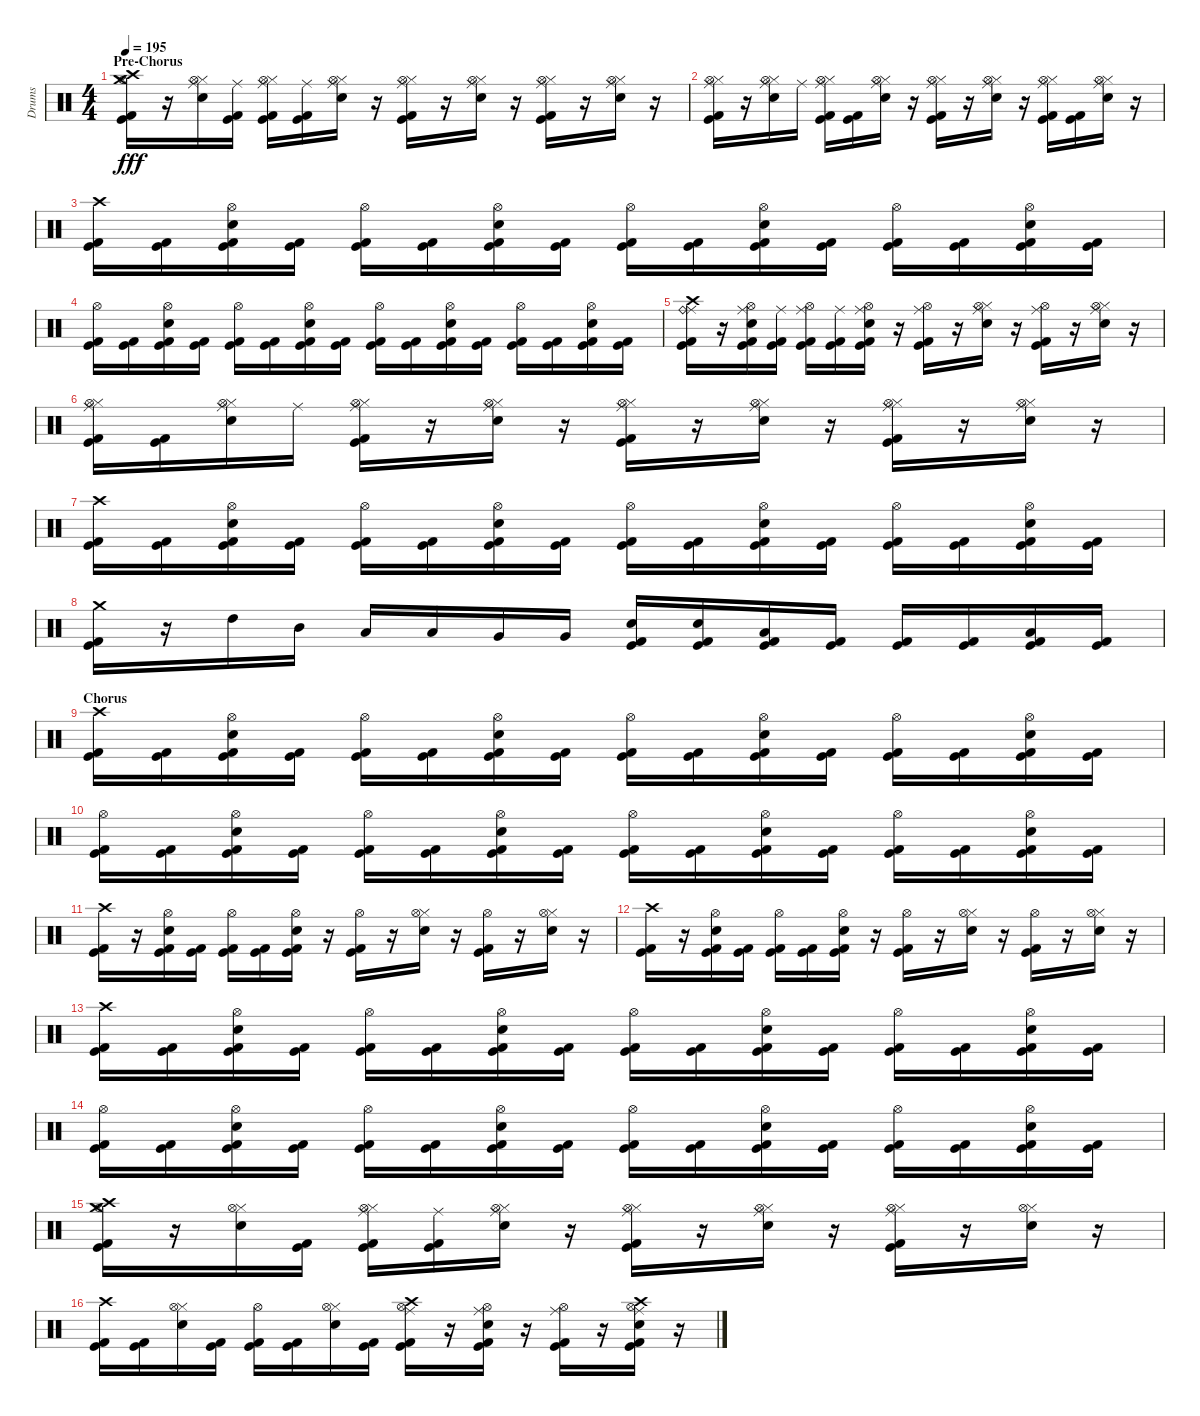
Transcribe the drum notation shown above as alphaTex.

\track ("Drums" "Drums") {instrument percussion}
\staff {score}
\articulation defaults
\ts (4 4)
\section ("" "Pre-Chorus")
\tempo 195
\clef neutral
\ks c
("Kick (hit) 2" "Kick (hit)" "Crash high (hit)" "Hi-Hat (open)" "Crash medium (hit)").16{dy fff} r.16 ("Snare (hit) 2" "Hi-Hat (closed)" "Ride (middle)" "Hi-Hat (open)").16 ("Kick (hit) 2" "Kick (hit)" "Ride (middle)").16 ("Kick (hit) 2" "Kick (hit)" "Hi-Hat (closed)" "Ride (middle)" "Hi-Hat (open)").16 ("Kick (hit) 2" "Kick (hit)" "Ride (middle)").16 ("Snare (hit) 2" "Hi-Hat (closed)" "Ride (middle)" "Hi-Hat (open)").16 r.16 ("Kick (hit) 2" "Kick (hit)" "Hi-Hat (closed)" "Ride (middle)" "Hi-Hat (open)").16 r.16 ("Snare (hit) 2" "Hi-Hat (closed)" "Ride (middle)" "Hi-Hat (open)").16 r.16 ("Kick (hit) 2" "Kick (hit)" "Hi-Hat (closed)" "Ride (middle)" "Hi-Hat (open)").16 r.16 ("Snare (hit) 2" "Hi-Hat (closed)" "Ride (middle)" "Hi-Hat (open)").16 r.16 |
("Kick (hit) 2" "Kick (hit)" "Hi-Hat (closed)" "Ride (middle)" "Hi-Hat (open)").16 r.16 ("Snare (hit) 2" "Hi-Hat (closed)" "Ride (middle)" "Hi-Hat (open)").16 "Ride (middle)".16 ("Kick (hit) 2" "Kick (hit)" "Hi-Hat (closed)" "Ride (middle)" "Hi-Hat (open)").16 ("Kick (hit) 2" "Kick (hit)").16 ("Snare (hit) 2" "Hi-Hat (closed)" "Ride (middle)" "Hi-Hat (open)").16 r.16 ("Kick (hit) 2" "Kick (hit)" "Hi-Hat (closed)" "Ride (middle)" "Hi-Hat (open)").16 r.16 ("Snare (hit) 2" "Hi-Hat (closed)" "Ride (middle)" "Hi-Hat (open)").16 r.16 ("Kick (hit) 2" "Kick (hit)" "Hi-Hat (closed)" "Ride (middle)" "Hi-Hat (open)").16 ("Kick (hit) 2" "Kick (hit)").16 ("Snare (hit) 2" "Hi-Hat (closed)" "Ride (middle)" "Hi-Hat (open)").16 r.16 |
("Kick (hit) 2" "Kick (hit)" "Crash high (hit)").16 ("Kick (hit) 2" "Kick (hit)").16 ("Kick (hit) 2" "Kick (hit)" "Snare (hit) 2" "Hi-Hat (open)").16 ("Kick (hit) 2" "Kick (hit)").16 ("Kick (hit) 2" "Kick (hit)" "Hi-Hat (open)").16 ("Kick (hit) 2" "Kick (hit)").16 ("Kick (hit) 2" "Kick (hit)" "Snare (hit) 2" "Hi-Hat (open)").16 ("Kick (hit) 2" "Kick (hit)").16 ("Kick (hit) 2" "Kick (hit)" "Hi-Hat (open)").16 ("Kick (hit) 2" "Kick (hit)").16 ("Kick (hit) 2" "Kick (hit)" "Snare (hit) 2" "Hi-Hat (open)").16 ("Kick (hit) 2" "Kick (hit)").16 ("Kick (hit) 2" "Kick (hit)" "Hi-Hat (open)").16 ("Kick (hit) 2" "Kick (hit)").16 ("Kick (hit) 2" "Kick (hit)" "Snare (hit) 2" "Hi-Hat (open)").16 ("Kick (hit) 2" "Kick (hit)").16 |
("Kick (hit) 2" "Kick (hit)" "Hi-Hat (open)").16 ("Kick (hit) 2" "Kick (hit)").16 ("Kick (hit) 2" "Kick (hit)" "Snare (hit) 2" "Hi-Hat (open)").16 ("Kick (hit) 2" "Kick (hit)").16 ("Kick (hit) 2" "Kick (hit)" "Hi-Hat (open)").16 ("Kick (hit) 2" "Kick (hit)").16 ("Kick (hit) 2" "Kick (hit)" "Snare (hit) 2" "Hi-Hat (open)").16 ("Kick (hit) 2" "Kick (hit)").16 ("Kick (hit) 2" "Kick (hit)" "Hi-Hat (open)").16 ("Kick (hit) 2" "Kick (hit)").16 ("Kick (hit) 2" "Kick (hit)" "Snare (hit) 2" "Hi-Hat (open)").16 ("Kick (hit) 2" "Kick (hit)").16 ("Kick (hit) 2" "Kick (hit)" "Hi-Hat (open)").16 ("Kick (hit) 2" "Kick (hit)").16 ("Kick (hit) 2" "Kick (hit)" "Snare (hit) 2" "Hi-Hat (open)").16 ("Kick (hit) 2" "Kick (hit)").16 |
("Kick (hit) 2" "Kick (hit)" "Ride (middle)" "Ride (bell)" "Crash high (hit)").16 r.16 ("Kick (hit) 2" "Kick (hit)" "Snare (hit) 2" "Ride (middle)" "Hi-Hat (open)").16 ("Kick (hit) 2" "Kick (hit)" "Ride (middle)").16 ("Kick (hit) 2" "Kick (hit)" "Ride (middle)" "Hi-Hat (open)").16 ("Kick (hit) 2" "Kick (hit)" "Ride (middle)").16 ("Kick (hit) 2" "Kick (hit)" "Snare (hit) 2" "Ride (middle)" "Hi-Hat (open)").16 r.16 ("Kick (hit) 2" "Kick (hit)" "Ride (middle)" "Hi-Hat (open)").16 r.16 ("Snare (hit) 2" "Hi-Hat (closed)" "Ride (middle)" "Hi-Hat (open)").16 r.16 ("Kick (hit) 2" "Kick (hit)" "Ride (middle)" "Hi-Hat (open)").16 r.16 ("Snare (hit) 2" "Hi-Hat (closed)" "Ride (middle)" "Hi-Hat (open)").16 r.16 |
("Kick (hit) 2" "Kick (hit)" "Hi-Hat (closed)" "Ride (middle)" "Hi-Hat (open)").16 ("Kick (hit) 2" "Kick (hit)").16 ("Snare (hit) 2" "Hi-Hat (closed)" "Ride (middle)" "Hi-Hat (open)").16 "Ride (middle)".16 ("Kick (hit) 2" "Kick (hit)" "Hi-Hat (closed)" "Ride (middle)" "Hi-Hat (open)").16 r.16 ("Snare (hit) 2" "Hi-Hat (closed)" "Ride (middle)" "Hi-Hat (open)").16 r.16 ("Kick (hit) 2" "Kick (hit)" "Hi-Hat (closed)" "Ride (middle)" "Hi-Hat (open)").16 r.16 ("Snare (hit) 2" "Hi-Hat (closed)" "Ride (middle)" "Hi-Hat (open)").16 r.16 ("Kick (hit) 2" "Kick (hit)" "Hi-Hat (closed)" "Ride (middle)" "Hi-Hat (open)").16 r.16 ("Snare (hit) 2" "Hi-Hat (closed)" "Ride (middle)" "Hi-Hat (open)").16 r.16 |
("Kick (hit) 2" "Kick (hit)" "Crash high (hit)").16 ("Kick (hit) 2" "Kick (hit)").16 ("Kick (hit) 2" "Kick (hit)" "Snare (hit) 2" "Hi-Hat (open)").16 ("Kick (hit) 2" "Kick (hit)").16 ("Kick (hit) 2" "Kick (hit)" "Hi-Hat (open)").16 ("Kick (hit) 2" "Kick (hit)").16 ("Kick (hit) 2" "Kick (hit)" "Snare (hit) 2" "Hi-Hat (open)").16 ("Kick (hit) 2" "Kick (hit)").16 ("Kick (hit) 2" "Kick (hit)" "Hi-Hat (open)").16 ("Kick (hit) 2" "Kick (hit)").16 ("Kick (hit) 2" "Kick (hit)" "Snare (hit) 2" "Hi-Hat (open)").16 ("Kick (hit) 2" "Kick (hit)").16 ("Kick (hit) 2" "Kick (hit)" "Hi-Hat (open)").16 ("Kick (hit) 2" "Kick (hit)").16 ("Kick (hit) 2" "Kick (hit)" "Snare (hit) 2" "Hi-Hat (open)").16 ("Kick (hit) 2" "Kick (hit)").16 |
("Kick (hit) 2" "Kick (hit)" "Crash medium (hit)").16 r.16 "High Tom (hit)".16 "Mid Tom (hit)".16 "Low Tom (hit)".16 "Low Tom (hit)".16 "Very Low Tom (hit)".16 "Very Low Tom (hit)".16 ("Kick (hit) 2" "Kick (hit)" "Snare (hit) 2").16 ("Kick (hit) 2" "Kick (hit)" "Snare (hit) 2").16 ("Kick (hit) 2" "Kick (hit)" "Low Tom (hit)").16 ("Kick (hit) 2" "Kick (hit)").16 ("Kick (hit) 2" "Kick (hit)").16 ("Kick (hit) 2" "Kick (hit)").16 ("Kick (hit) 2" "Kick (hit)" "Low Floor Tom (hit)").16 ("Kick (hit) 2" "Kick (hit)").16 |
\section ("" "Chorus")
("Kick (hit) 2" "Kick (hit)" "Crash high (hit)").16 ("Kick (hit) 2" "Kick (hit)").16 ("Kick (hit) 2" "Kick (hit)" "Snare (hit) 2" "Hi-Hat (open)").16 ("Kick (hit) 2" "Kick (hit)").16 ("Kick (hit) 2" "Kick (hit)" "Hi-Hat (open)").16 ("Kick (hit) 2" "Kick (hit)").16 ("Kick (hit) 2" "Kick (hit)" "Snare (hit) 2" "Hi-Hat (open)").16 ("Kick (hit) 2" "Kick (hit)").16 ("Kick (hit) 2" "Kick (hit)" "Hi-Hat (open)").16 ("Kick (hit) 2" "Kick (hit)").16 ("Kick (hit) 2" "Kick (hit)" "Snare (hit) 2" "Hi-Hat (open)").16 ("Kick (hit) 2" "Kick (hit)").16 ("Kick (hit) 2" "Kick (hit)" "Hi-Hat (open)").16 ("Kick (hit) 2" "Kick (hit)").16 ("Kick (hit) 2" "Kick (hit)" "Snare (hit) 2" "Hi-Hat (open)").16 ("Kick (hit) 2" "Kick (hit)").16 |
("Kick (hit) 2" "Kick (hit)" "Hi-Hat (open)").16 ("Kick (hit) 2" "Kick (hit)").16 ("Kick (hit) 2" "Kick (hit)" "Snare (hit) 2" "Hi-Hat (open)").16 ("Kick (hit) 2" "Kick (hit)").16 ("Kick (hit) 2" "Kick (hit)" "Hi-Hat (open)").16 ("Kick (hit) 2" "Kick (hit)").16 ("Kick (hit) 2" "Kick (hit)" "Snare (hit) 2" "Hi-Hat (open)").16 ("Kick (hit) 2" "Kick (hit)").16 ("Kick (hit) 2" "Kick (hit)" "Hi-Hat (open)").16 ("Kick (hit) 2" "Kick (hit)").16 ("Kick (hit) 2" "Kick (hit)" "Snare (hit) 2" "Hi-Hat (open)").16 ("Kick (hit) 2" "Kick (hit)").16 ("Kick (hit) 2" "Kick (hit)" "Hi-Hat (open)").16 ("Kick (hit) 2" "Kick (hit)").16 ("Kick (hit) 2" "Kick (hit)" "Snare (hit) 2" "Hi-Hat (open)").16 ("Kick (hit) 2" "Kick (hit)").16 |
("Kick (hit) 2" "Kick (hit)" "Crash high (hit)").16 r.16 ("Kick (hit) 2" "Kick (hit)" "Snare (hit) 2" "Hi-Hat (open)").16 ("Kick (hit) 2" "Kick (hit)").16 ("Kick (hit) 2" "Kick (hit)" "Hi-Hat (open)").16 ("Kick (hit) 2" "Kick (hit)").16 ("Kick (hit) 2" "Kick (hit)" "Snare (hit) 2" "Hi-Hat (open)").16 r.16 ("Kick (hit) 2" "Kick (hit)" "Hi-Hat (open)").16 r.16 ("Snare (hit) 2" "Hi-Hat (closed)" "Hi-Hat (open)").16 r.16 ("Kick (hit) 2" "Kick (hit)" "Hi-Hat (open)").16 r.16 ("Snare (hit) 2" "Hi-Hat (closed)" "Hi-Hat (open)").16 r.16 |
("Kick (hit) 2" "Kick (hit)" "Crash high (hit)").16 r.16 ("Kick (hit) 2" "Kick (hit)" "Snare (hit) 2" "Hi-Hat (open)").16 ("Kick (hit) 2" "Kick (hit)").16 ("Kick (hit) 2" "Kick (hit)" "Hi-Hat (open)").16 ("Kick (hit) 2" "Kick (hit)").16 ("Kick (hit) 2" "Kick (hit)" "Snare (hit) 2" "Hi-Hat (open)").16 r.16 ("Kick (hit) 2" "Kick (hit)" "Hi-Hat (open)").16 r.16 ("Snare (hit) 2" "Hi-Hat (closed)" "Hi-Hat (open)").16 r.16 ("Kick (hit) 2" "Kick (hit)" "Hi-Hat (open)").16 r.16 ("Snare (hit) 2" "Hi-Hat (closed)" "Hi-Hat (open)").16 r.16 |
("Kick (hit) 2" "Kick (hit)" "Crash high (hit)").16 ("Kick (hit) 2" "Kick (hit)").16 ("Kick (hit) 2" "Kick (hit)" "Snare (hit) 2" "Hi-Hat (open)").16 ("Kick (hit) 2" "Kick (hit)").16 ("Kick (hit) 2" "Kick (hit)" "Hi-Hat (open)").16 ("Kick (hit) 2" "Kick (hit)").16 ("Kick (hit) 2" "Kick (hit)" "Snare (hit) 2" "Hi-Hat (open)").16 ("Kick (hit) 2" "Kick (hit)").16 ("Kick (hit) 2" "Kick (hit)" "Hi-Hat (open)").16 ("Kick (hit) 2" "Kick (hit)").16 ("Kick (hit) 2" "Kick (hit)" "Snare (hit) 2" "Hi-Hat (open)").16 ("Kick (hit) 2" "Kick (hit)").16 ("Kick (hit) 2" "Kick (hit)" "Hi-Hat (open)").16 ("Kick (hit) 2" "Kick (hit)").16 ("Kick (hit) 2" "Kick (hit)" "Snare (hit) 2" "Hi-Hat (open)").16 ("Kick (hit) 2" "Kick (hit)").16 |
("Kick (hit) 2" "Kick (hit)" "Hi-Hat (open)").16 ("Kick (hit) 2" "Kick (hit)").16 ("Kick (hit) 2" "Kick (hit)" "Snare (hit) 2" "Hi-Hat (open)").16 ("Kick (hit) 2" "Kick (hit)").16 ("Kick (hit) 2" "Kick (hit)" "Hi-Hat (open)").16 ("Kick (hit) 2" "Kick (hit)").16 ("Kick (hit) 2" "Kick (hit)" "Snare (hit) 2" "Hi-Hat (open)").16 ("Kick (hit) 2" "Kick (hit)").16 ("Kick (hit) 2" "Kick (hit)" "Hi-Hat (open)").16 ("Kick (hit) 2" "Kick (hit)").16 ("Kick (hit) 2" "Kick (hit)" "Snare (hit) 2" "Hi-Hat (open)").16 ("Kick (hit) 2" "Kick (hit)").16 ("Kick (hit) 2" "Kick (hit)" "Hi-Hat (open)").16 ("Kick (hit) 2" "Kick (hit)").16 ("Kick (hit) 2" "Kick (hit)" "Snare (hit) 2" "Hi-Hat (open)").16 ("Kick (hit) 2" "Kick (hit)").16 |
("Kick (hit) 2" "Kick (hit)" "Crash high (hit)" "Hi-Hat (open)" "Crash medium (hit)").16 r.16 ("Snare (hit) 2" "Hi-Hat (closed)" "Hi-Hat (open)").16 ("Kick (hit) 2" "Kick (hit)").16 ("Kick (hit) 2" "Kick (hit)" "Hi-Hat (closed)" "Ride (middle)" "Hi-Hat (open)").16 ("Kick (hit) 2" "Kick (hit)" "Ride (middle)").16 ("Snare (hit) 2" "Hi-Hat (closed)" "Ride (middle)" "Hi-Hat (open)").16 r.16 ("Kick (hit) 2" "Kick (hit)" "Hi-Hat (closed)" "Ride (middle)" "Hi-Hat (open)").16 r.16 ("Snare (hit) 2" "Hi-Hat (closed)" "Ride (middle)" "Hi-Hat (open)").16 r.16 ("Kick (hit) 2" "Kick (hit)" "Hi-Hat (closed)" "Ride (middle)" "Hi-Hat (open)").16 r.16 ("Snare (hit) 2" "Hi-Hat (closed)" "Hi-Hat (open)").16 r.16 |
("Kick (hit) 2" "Kick (hit)" "Crash high (hit)").16 ("Kick (hit) 2" "Kick (hit)").16 ("Snare (hit) 2" "Hi-Hat (closed)" "Hi-Hat (open)").16 ("Kick (hit) 2" "Kick (hit)").16 ("Kick (hit) 2" "Kick (hit)" "Hi-Hat (open)").16 ("Kick (hit) 2" "Kick (hit)").16 ("Snare (hit) 2" "Hi-Hat (closed)" "Hi-Hat (open)").16 ("Kick (hit) 2" "Kick (hit)").16 ("Kick (hit) 2" "Kick (hit)" "Ride (middle)" "Hi-Hat (open)" "Crash high (hit)").16 r.16 ("Kick (hit) 2" "Kick (hit)" "Snare (hit) 2" "Ride (middle)" "Hi-Hat (open)").16 r.16 ("Kick (hit) 2" "Kick (hit)" "Ride (middle)" "Hi-Hat (open)").16 r.16 ("Kick (hit) 2" "Kick (hit)" "Snare (hit) 2" "Ride (middle)" "Hi-Hat (open)" "Crash high (hit)").16 r.16
